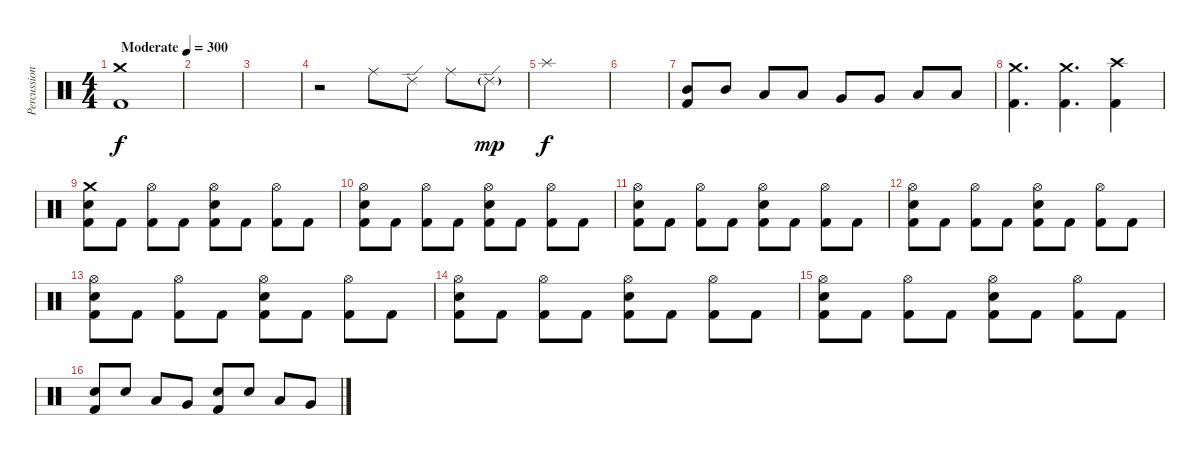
\track ("Percussion" "Percussion") {instrument percussion}
\staff {score}
\articulation defaults
\ts (4 4)
\tempo (300 "Moderate")
\clef neutral
\ks c
("Crash medium (hit)" "Kick (hit) 2").1{dy f} |
|
|
r.2 "Ride (middle)".8 "Ride (edge) 2".8 "Ride (middle)".8 "Ride (edge) 2"{g}.8{dy mp} |
"Splash (hit)".1{dy f} |
|
("Mid Tom (hit)" "Kick (hit) 2").8 "Mid Tom (hit)".8 "Low Tom (hit)".8 "Low Tom (hit)".8 "Very Low Tom (hit)".8 "Very Low Tom (hit)".8 "Low Floor Tom (hit)".8 "Low Floor Tom (hit)".8 |
("Crash medium (hit)" "Kick (hit) 2").4{d} ("Crash medium (hit)" "Kick (hit) 2").4{d} ("Crash high (hit)" "Kick (hit) 2").4 |
("Crash medium (hit)" "Snare (hit) 2" "Kick (hit) 2").8 "Kick (hit) 2".8 ("Hi-Hat (open)" "Kick (hit) 2").8 "Kick (hit) 2".8 ("Hi-Hat (open)" "Snare (hit) 2" "Kick (hit) 2").8 "Kick (hit) 2".8 ("Hi-Hat (open)" "Kick (hit) 2").8 "Kick (hit) 2".8 |
("Hi-Hat (open)" "Snare (hit) 2" "Kick (hit) 2").8 "Kick (hit) 2".8 ("Hi-Hat (open)" "Kick (hit) 2").8 "Kick (hit) 2".8 ("Hi-Hat (open)" "Snare (hit) 2" "Kick (hit) 2").8 "Kick (hit) 2".8 ("Hi-Hat (open)" "Kick (hit) 2").8 "Kick (hit) 2".8 |
("Hi-Hat (open)" "Snare (hit) 2" "Kick (hit) 2").8 "Kick (hit) 2".8 ("Hi-Hat (open)" "Kick (hit) 2").8 "Kick (hit) 2".8 ("Hi-Hat (open)" "Snare (hit) 2" "Kick (hit) 2").8 "Kick (hit) 2".8 ("Hi-Hat (open)" "Kick (hit) 2").8 "Kick (hit) 2".8 |
("Hi-Hat (open)" "Snare (hit) 2" "Kick (hit) 2").8 "Kick (hit) 2".8 ("Hi-Hat (open)" "Kick (hit) 2").8 "Kick (hit) 2".8 ("Hi-Hat (open)" "Snare (hit) 2" "Kick (hit) 2").8 "Kick (hit) 2".8 ("Hi-Hat (open)" "Kick (hit) 2").8 "Kick (hit) 2".8 |
("Hi-Hat (open)" "Snare (hit) 2" "Kick (hit) 2").8 "Kick (hit) 2".8 ("Hi-Hat (open)" "Kick (hit) 2").8 "Kick (hit) 2".8 ("Hi-Hat (open)" "Snare (hit) 2" "Kick (hit) 2").8 "Kick (hit) 2".8 ("Hi-Hat (open)" "Kick (hit) 2").8 "Kick (hit) 2".8 |
("Hi-Hat (open)" "Snare (hit) 2" "Kick (hit) 2").8 "Kick (hit) 2".8 ("Hi-Hat (open)" "Kick (hit) 2").8 "Kick (hit) 2".8 ("Hi-Hat (open)" "Snare (hit) 2" "Kick (hit) 2").8 "Kick (hit) 2".8 ("Hi-Hat (open)" "Kick (hit) 2").8 "Kick (hit) 2".8 |
("Hi-Hat (open)" "Snare (hit) 2" "Kick (hit) 2").8 "Kick (hit) 2".8 ("Hi-Hat (open)" "Kick (hit) 2").8 "Kick (hit) 2".8 ("Hi-Hat (open)" "Snare (hit) 2" "Kick (hit) 2").8 "Kick (hit) 2".8 ("Hi-Hat (open)" "Kick (hit) 2").8 "Kick (hit) 2".8 |
("Snare (hit) 2" "Kick (hit) 2").8 "Snare (hit) 2".8 "Low Tom (hit)".8 "Very Low Tom (hit)".8 ("Snare (hit) 2" "Kick (hit) 2").8 "Snare (hit) 2".8 "Low Tom (hit)".8 "Very Low Tom (hit)".8
